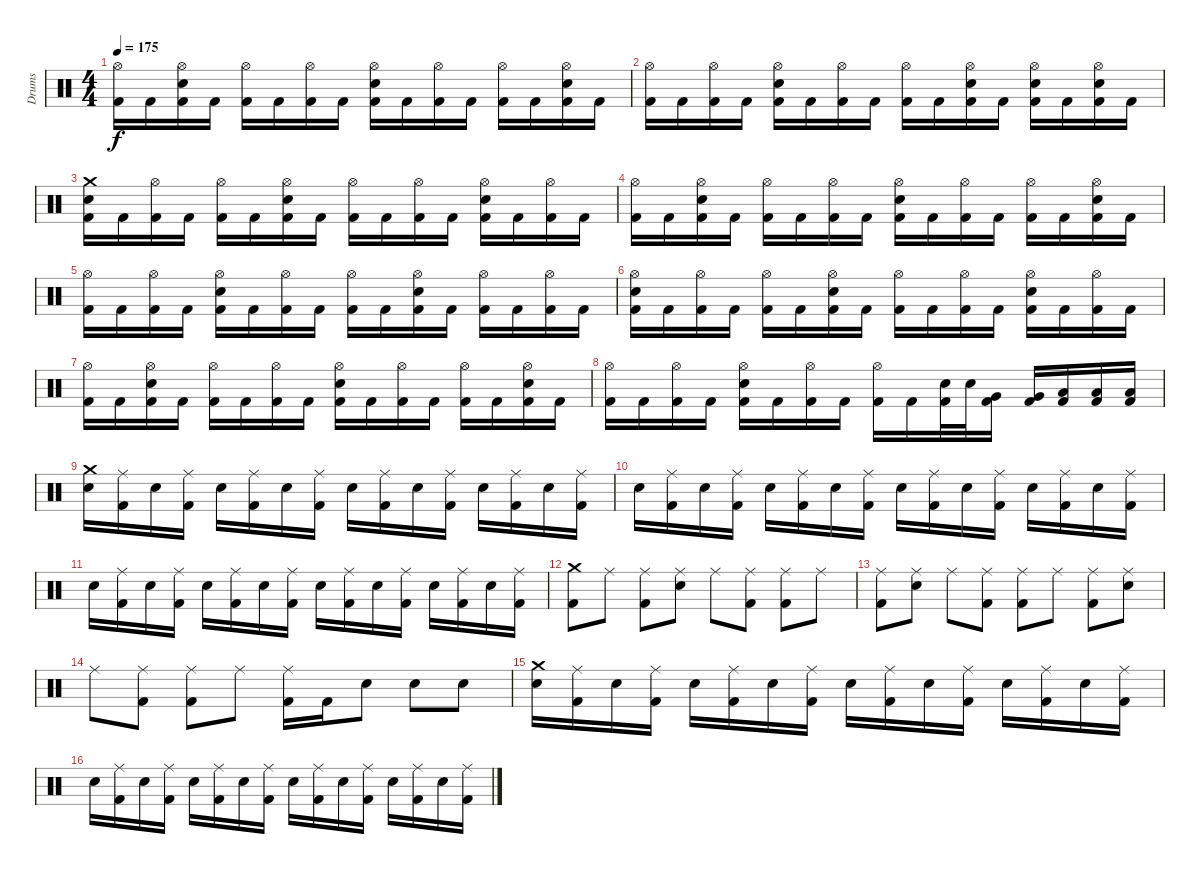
\track ("Drums" "Drums") {instrument percussion}
\staff {score}
\articulation defaults
\ts (4 4)
\tempo 175
\clef neutral
\ks c
("Hi-Hat (open)" "Kick (hit) 2").16{dy f} "Kick (hit) 2".16 ("Hi-Hat (open)" "Electric Snare (hit)" "Kick (hit) 2").16 "Kick (hit) 2".16 ("Hi-Hat (open)" "Kick (hit) 2").16 "Kick (hit) 2".16 ("Hi-Hat (open)" "Kick (hit) 2").16 "Kick (hit) 2".16 ("Hi-Hat (open)" "Electric Snare (hit)" "Kick (hit) 2").16 "Kick (hit) 2".16 ("Hi-Hat (open)" "Kick (hit) 2").16 "Kick (hit) 2".16 ("Hi-Hat (open)" "Kick (hit) 2").16 "Kick (hit) 2".16 ("Hi-Hat (open)" "Electric Snare (hit)" "Kick (hit) 2").16 "Kick (hit) 2".16 |
("Hi-Hat (open)" "Kick (hit) 2").16 "Kick (hit) 2".16 ("Hi-Hat (open)" "Kick (hit) 2").16 "Kick (hit) 2".16 ("Hi-Hat (open)" "Electric Snare (hit)" "Kick (hit) 2").16 "Kick (hit) 2".16 ("Hi-Hat (open)" "Kick (hit) 2").16 "Kick (hit) 2".16 ("Hi-Hat (open)" "Kick (hit) 2").16 "Kick (hit) 2".16 ("Hi-Hat (open)" "Electric Snare (hit)" "Kick (hit) 2").16 "Kick (hit) 2".16 ("Hi-Hat (open)" "Electric Snare (hit)" "Kick (hit) 2").16 "Kick (hit) 2".16 ("Hi-Hat (open)" "Electric Snare (hit)" "Kick (hit) 2").16 "Kick (hit) 2".16 |
("Crash medium (hit)" "Electric Snare (hit)" "Kick (hit) 2").16 "Kick (hit) 2".16 ("Hi-Hat (open)" "Kick (hit) 2").16 "Kick (hit) 2".16 ("Hi-Hat (open)" "Kick (hit) 2").16 "Kick (hit) 2".16 ("Hi-Hat (open)" "Electric Snare (hit)" "Kick (hit) 2").16 "Kick (hit) 2".16 ("Hi-Hat (open)" "Kick (hit) 2").16 "Kick (hit) 2".16 ("Hi-Hat (open)" "Kick (hit) 2").16 "Kick (hit) 2".16 ("Hi-Hat (open)" "Electric Snare (hit)" "Kick (hit) 2").16 "Kick (hit) 2".16 ("Hi-Hat (open)" "Kick (hit) 2").16 "Kick (hit) 2".16 |
("Hi-Hat (open)" "Kick (hit) 2").16 "Kick (hit) 2".16 ("Hi-Hat (open)" "Electric Snare (hit)" "Kick (hit) 2").16 "Kick (hit) 2".16 ("Hi-Hat (open)" "Kick (hit) 2").16 "Kick (hit) 2".16 ("Hi-Hat (open)" "Kick (hit) 2").16 "Kick (hit) 2".16 ("Hi-Hat (open)" "Electric Snare (hit)" "Kick (hit) 2").16 "Kick (hit) 2".16 ("Hi-Hat (open)" "Kick (hit) 2").16 "Kick (hit) 2".16 ("Hi-Hat (open)" "Kick (hit) 2").16 "Kick (hit) 2".16 ("Hi-Hat (open)" "Electric Snare (hit)" "Kick (hit) 2").16 "Kick (hit) 2".16 |
("Hi-Hat (open)" "Kick (hit) 2").16 "Kick (hit) 2".16 ("Hi-Hat (open)" "Kick (hit) 2").16 "Kick (hit) 2".16 ("Hi-Hat (open)" "Electric Snare (hit)" "Kick (hit) 2").16 "Kick (hit) 2".16 ("Hi-Hat (open)" "Kick (hit) 2").16 "Kick (hit) 2".16 ("Hi-Hat (open)" "Kick (hit) 2").16 "Kick (hit) 2".16 ("Hi-Hat (open)" "Electric Snare (hit)" "Kick (hit) 2").16 "Kick (hit) 2".16 ("Hi-Hat (open)" "Kick (hit) 2").16 "Kick (hit) 2".16 ("Hi-Hat (open)" "Kick (hit) 2").16 "Kick (hit) 2".16 |
("Hi-Hat (open)" "Electric Snare (hit)" "Kick (hit) 2").16 "Kick (hit) 2".16 ("Hi-Hat (open)" "Kick (hit) 2").16 "Kick (hit) 2".16 ("Hi-Hat (open)" "Kick (hit) 2").16 "Kick (hit) 2".16 ("Hi-Hat (open)" "Electric Snare (hit)" "Kick (hit) 2").16 "Kick (hit) 2".16 ("Hi-Hat (open)" "Kick (hit) 2").16 "Kick (hit) 2".16 ("Hi-Hat (open)" "Kick (hit) 2").16 "Kick (hit) 2".16 ("Hi-Hat (open)" "Electric Snare (hit)" "Kick (hit) 2").16 "Kick (hit) 2".16 ("Hi-Hat (open)" "Kick (hit) 2").16 "Kick (hit) 2".16 |
("Hi-Hat (open)" "Kick (hit) 2").16 "Kick (hit) 2".16 ("Hi-Hat (open)" "Electric Snare (hit)" "Kick (hit) 2").16 "Kick (hit) 2".16 ("Hi-Hat (open)" "Kick (hit) 2").16 "Kick (hit) 2".16 ("Hi-Hat (open)" "Kick (hit) 2").16 "Kick (hit) 2".16 ("Hi-Hat (open)" "Electric Snare (hit)" "Kick (hit) 2").16 "Kick (hit) 2".16 ("Hi-Hat (open)" "Kick (hit) 2").16 "Kick (hit) 2".16 ("Hi-Hat (open)" "Kick (hit) 2").16 "Kick (hit) 2".16 ("Hi-Hat (open)" "Electric Snare (hit)" "Kick (hit) 2").16 "Kick (hit) 2".16 |
("Hi-Hat (open)" "Kick (hit) 2").16 "Kick (hit) 2".16 ("Hi-Hat (open)" "Kick (hit) 2").16 "Kick (hit) 2".16 ("Hi-Hat (open)" "Electric Snare (hit)" "Kick (hit) 2").16 "Kick (hit) 2".16 ("Hi-Hat (open)" "Kick (hit) 2").16 "Kick (hit) 2".16 ("Hi-Hat (open)" "Kick (hit) 2").16 "Kick (hit) 2".16 ("Electric Snare (hit)" "Kick (hit) 2").32 "Electric Snare (hit)".32 ("Very Low Tom (hit)" "Kick (hit) 2").16 ("Very Low Tom (hit)" "Kick (hit) 2").16 ("Low Floor Tom (hit)" "Kick (hit) 2").16 ("Low Floor Tom (hit)" "Kick (hit) 2").16 ("Low Floor Tom (hit)" "Kick (hit) 2").16 |
("Crash medium (hit)" "Electric Snare (hit)").16 ("Ride (middle)" "Kick (hit) 2").16 "Electric Snare (hit)".16 ("Ride (middle)" "Kick (hit) 2").16 "Electric Snare (hit)".16 ("Ride (middle)" "Kick (hit) 2").16 "Electric Snare (hit)".16 ("Ride (middle)" "Kick (hit) 2").16 "Electric Snare (hit)".16 ("Ride (middle)" "Kick (hit) 2").16 "Electric Snare (hit)".16 ("Ride (middle)" "Kick (hit) 2").16 "Electric Snare (hit)".16 ("Ride (middle)" "Kick (hit) 2").16 "Electric Snare (hit)".16 ("Ride (middle)" "Kick (hit) 2").16 |
"Electric Snare (hit)".16 ("Ride (middle)" "Kick (hit) 2").16 "Electric Snare (hit)".16 ("Ride (middle)" "Kick (hit) 2").16 "Electric Snare (hit)".16 ("Ride (middle)" "Kick (hit) 2").16 "Electric Snare (hit)".16 ("Ride (middle)" "Kick (hit) 2").16 "Electric Snare (hit)".16 ("Ride (middle)" "Kick (hit) 2").16 "Electric Snare (hit)".16 ("Ride (middle)" "Kick (hit) 2").16 "Electric Snare (hit)".16 ("Ride (middle)" "Kick (hit) 2").16 "Electric Snare (hit)".16 ("Ride (middle)" "Kick (hit) 2").16 |
"Electric Snare (hit)".16 ("Ride (middle)" "Kick (hit) 2").16 "Electric Snare (hit)".16 ("Ride (middle)" "Kick (hit) 2").16 "Electric Snare (hit)".16 ("Ride (middle)" "Kick (hit) 2").16 "Electric Snare (hit)".16 ("Ride (middle)" "Kick (hit) 2").16 "Electric Snare (hit)".16 ("Ride (middle)" "Kick (hit) 2").16 "Electric Snare (hit)".16 ("Ride (middle)" "Kick (hit) 2").16 "Electric Snare (hit)".16 ("Ride (middle)" "Kick (hit) 2").16 "Electric Snare (hit)".16 ("Ride (middle)" "Kick (hit) 2").16 |
("Crash medium (hit)" "Kick (hit) 2").8 "Ride (middle)".8 ("Ride (middle)" "Kick (hit) 2").8 ("Ride (middle)" "Electric Snare (hit)").8 "Ride (middle)".8 ("Ride (middle)" "Kick (hit) 2").8 ("Ride (middle)" "Kick (hit) 2").8 "Ride (middle)".8 |
("Ride (middle)" "Kick (hit) 2").8 ("Ride (middle)" "Electric Snare (hit)").8 "Ride (middle)".8 ("Ride (middle)" "Kick (hit) 2").8 ("Ride (middle)" "Kick (hit) 2").8 "Ride (middle)".8 ("Ride (middle)" "Kick (hit) 2").8 ("Ride (middle)" "Electric Snare (hit)").8 |
"Ride (middle)".8 ("Ride (middle)" "Kick (hit) 2").8 ("Ride (middle)" "Kick (hit) 2").8 "Ride (middle)".8 ("Ride (middle)" "Kick (hit) 2").16 "Kick (hit) 2".16 "Electric Snare (hit)".8 "Electric Snare (hit)".8 "Electric Snare (hit)".8 |
("Crash medium (hit)" "Electric Snare (hit)").16 ("Ride (middle)" "Kick (hit) 2").16 "Electric Snare (hit)".16 ("Ride (middle)" "Kick (hit) 2").16 "Electric Snare (hit)".16 ("Ride (middle)" "Kick (hit) 2").16 "Electric Snare (hit)".16 ("Ride (middle)" "Kick (hit) 2").16 "Electric Snare (hit)".16 ("Ride (middle)" "Kick (hit) 2").16 "Electric Snare (hit)".16 ("Ride (middle)" "Kick (hit) 2").16 "Electric Snare (hit)".16 ("Ride (middle)" "Kick (hit) 2").16 "Electric Snare (hit)".16 ("Ride (middle)" "Kick (hit) 2").16 |
"Electric Snare (hit)".16 ("Ride (middle)" "Kick (hit) 2").16 "Electric Snare (hit)".16 ("Ride (middle)" "Kick (hit) 2").16 "Electric Snare (hit)".16 ("Ride (middle)" "Kick (hit) 2").16 "Electric Snare (hit)".16 ("Ride (middle)" "Kick (hit) 2").16 "Electric Snare (hit)".16 ("Ride (middle)" "Kick (hit) 2").16 "Electric Snare (hit)".16 ("Ride (middle)" "Kick (hit) 2").16 "Electric Snare (hit)".16 ("Ride (middle)" "Kick (hit) 2").16 "Electric Snare (hit)".16 ("Ride (middle)" "Kick (hit) 2").16
